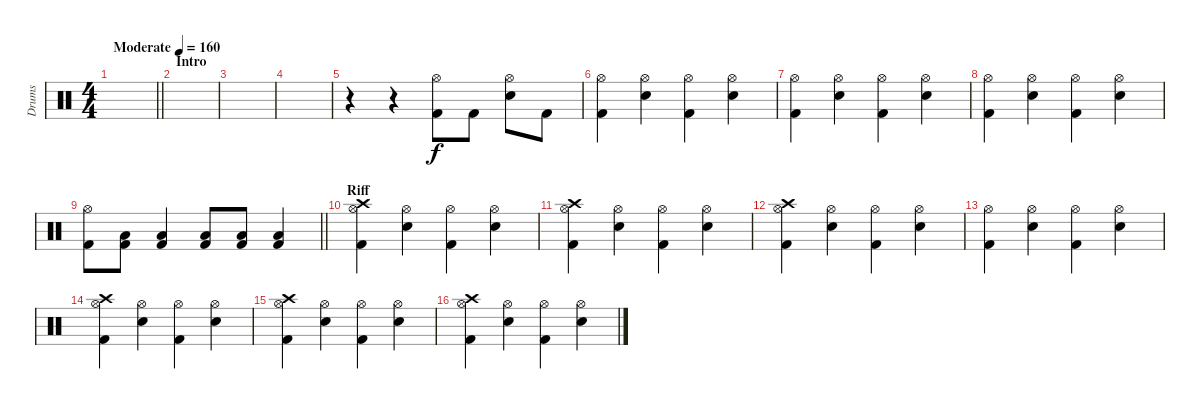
\track ("Drums" "Drums") {instrument percussion}
\staff {score}
\articulation defaults
\ts (4 4)
\tempo (160 "Moderate")
\clef neutral
\barLineRight lightlight
\ks c
|
\section ("" "Intro")
|
|
|
r.4{volume 0} r.4{volume 16} ("Kick (hit) 2" "Hi-Hat (open)").8 "Kick (hit) 2".8 ("Snare (hit) 2" "Hi-Hat (open)").8 "Kick (hit) 2".8 |
("Kick (hit) 2" "Hi-Hat (open)").4 ("Snare (hit) 2" "Hi-Hat (open)").4 ("Kick (hit) 2" "Hi-Hat (open)").4 ("Snare (hit) 2" "Hi-Hat (open)").4 |
("Kick (hit) 2" "Hi-Hat (open)").4 ("Snare (hit) 2" "Hi-Hat (open)").4 ("Kick (hit) 2" "Hi-Hat (open)").4 ("Snare (hit) 2" "Hi-Hat (open)").4 |
("Kick (hit) 2" "Hi-Hat (open)").4 ("Snare (hit) 2" "Hi-Hat (open)").4 ("Kick (hit) 2" "Hi-Hat (open)").4 ("Snare (hit) 2" "Hi-Hat (open)").4 |
\barLineRight lightlight
("Kick (hit) 2" "Hi-Hat (open)").8 ("Low Floor Tom (hit)" "Kick (hit) 2").8 ("Low Floor Tom (hit)" "Kick (hit) 2").4 ("Low Floor Tom (hit)" "Kick (hit) 2").8 ("Low Floor Tom (hit)" "Kick (hit) 2").8 ("Low Floor Tom (hit)" "Kick (hit) 2").4 |
\section ("" "Riff")
("Kick (hit) 2" "Hi-Hat (open)" "Crash high (hit)").4 ("Snare (hit) 2" "Hi-Hat (open)").4 ("Kick (hit) 2" "Hi-Hat (open)").4 ("Snare (hit) 2" "Hi-Hat (open)").4 |
("Kick (hit) 2" "Hi-Hat (open)" "Crash high (hit)").4 ("Snare (hit) 2" "Hi-Hat (open)").4 ("Kick (hit) 2" "Hi-Hat (open)").4 ("Snare (hit) 2" "Hi-Hat (open)").4 |
("Kick (hit) 2" "Hi-Hat (open)" "Crash high (hit)").4 ("Snare (hit) 2" "Hi-Hat (open)").4 ("Kick (hit) 2" "Hi-Hat (open)").4 ("Snare (hit) 2" "Hi-Hat (open)").4 |
("Kick (hit) 2" "Hi-Hat (open)").4 ("Snare (hit) 2" "Hi-Hat (open)").4 ("Kick (hit) 2" "Hi-Hat (open)").4 ("Snare (hit) 2" "Hi-Hat (open)").4 |
("Kick (hit) 2" "Hi-Hat (open)" "Crash high (hit)").4 ("Snare (hit) 2" "Hi-Hat (open)").4 ("Kick (hit) 2" "Hi-Hat (open)").4 ("Snare (hit) 2" "Hi-Hat (open)").4 |
("Kick (hit) 2" "Hi-Hat (open)" "Crash high (hit)").4 ("Snare (hit) 2" "Hi-Hat (open)").4 ("Kick (hit) 2" "Hi-Hat (open)").4 ("Snare (hit) 2" "Hi-Hat (open)").4 |
("Kick (hit) 2" "Hi-Hat (open)" "Crash high (hit)").4 ("Snare (hit) 2" "Hi-Hat (open)").4 ("Kick (hit) 2" "Hi-Hat (open)").4 ("Snare (hit) 2" "Hi-Hat (open)").4
